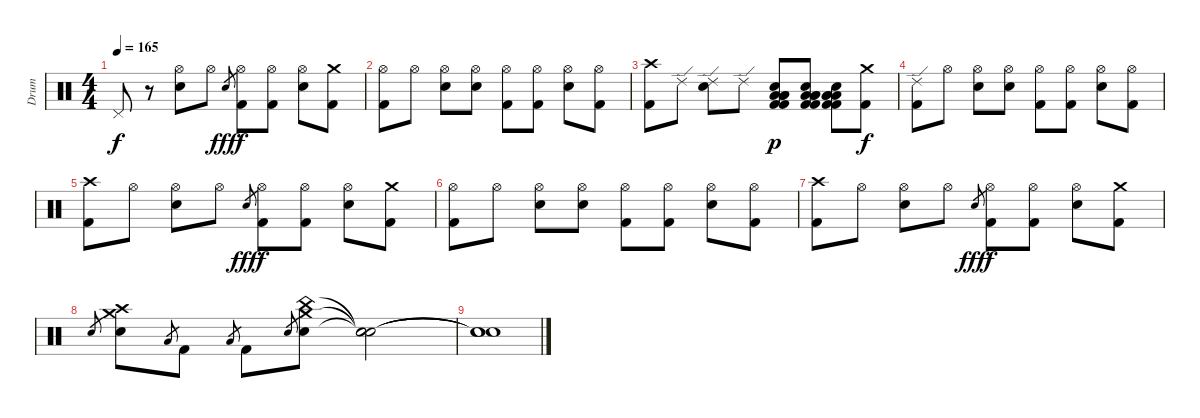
\track ("Drum" "Drum") {instrument percussion}
\staff {score}
\articulation defaults
\ts (4 4)
\tempo 165
\clef neutral
\ks c "Pedal Hi-Hat (hit)".8{dy f}
r.8 ("Hi-Hat (open)" "Electric Snare (hit)").8 "Hi-Hat (open)".8 "Electric Snare (hit)".8{gr dy fff} ("Hi-Hat (open)" "Kick (hit) 2").8{dy f} ("Hi-Hat (open)" "Kick (hit) 2").8 ("Hi-Hat (open)" "Electric Snare (hit)").8 ("Crash medium (hit)" "Kick (hit) 2").8 |
("Hi-Hat (open)" "Kick (hit) 2").8 "Hi-Hat (open)".8 ("Hi-Hat (open)" "Electric Snare (hit)").8 ("Hi-Hat (open)" "Electric Snare (hit)").8 ("Hi-Hat (open)" "Kick (hit) 2").8 ("Hi-Hat (open)" "Kick (hit) 2").8 ("Hi-Hat (open)" "Electric Snare (hit)").8 ("Hi-Hat (open)" "Kick (hit) 2").8 |
("Crash high (hit)" "Kick (hit) 2").8 "Ride (edge) 2".8 ("Ride (edge) 2" "Electric Snare (hit)").8 "Ride (edge) 2".8 ("Low Tom (hit)" "Low Floor Tom (hit)" "Low Floor Tom (hit)" "Kick (hit) 2" "Snare (hit) 2" "Kick (hit) 2").8{dy p} ("Low Tom (hit)" "Low Floor Tom (hit)" "Low Floor Tom (hit)" "Kick (hit) 2" "Snare (hit) 2" "Kick (hit) 2").8 ("Low Tom (hit)" "Low Floor Tom (hit)" "Low Floor Tom (hit)" "Kick (hit) 2" "Snare (hit) 2" "Kick (hit) 2").8 ("Crash medium (hit)" "Kick (hit) 2").8{dy f} |
("Ride (edge) 2" "Kick (hit) 2").8 "Hi-Hat (open)".8 ("Hi-Hat (open)" "Electric Snare (hit)").8 ("Hi-Hat (open)" "Electric Snare (hit)").8 ("Hi-Hat (open)" "Kick (hit) 2").8 ("Hi-Hat (open)" "Kick (hit) 2").8 ("Hi-Hat (open)" "Electric Snare (hit)").8 ("Hi-Hat (open)" "Kick (hit) 2").8 |
("Crash high (hit)" "Kick (hit) 2").8 "Hi-Hat (open)".8 ("Hi-Hat (open)" "Electric Snare (hit)").8 "Hi-Hat (open)".8 "Electric Snare (hit)".8{gr dy fff} ("Hi-Hat (open)" "Kick (hit) 2").8{dy f} ("Hi-Hat (open)" "Kick (hit) 2").8 ("Hi-Hat (open)" "Electric Snare (hit)").8 ("Crash medium (hit)" "Kick (hit) 2").8 |
("Hi-Hat (open)" "Kick (hit) 2").8 "Hi-Hat (open)".8 ("Hi-Hat (open)" "Electric Snare (hit)").8 ("Hi-Hat (open)" "Electric Snare (hit)").8 ("Hi-Hat (open)" "Kick (hit) 2").8 ("Hi-Hat (open)" "Kick (hit) 2").8 ("Hi-Hat (open)" "Electric Snare (hit)").8 ("Hi-Hat (open)" "Kick (hit) 2").8 |
("Crash high (hit)" "Kick (hit) 2").8 "Hi-Hat (open)".8 ("Hi-Hat (open)" "Electric Snare (hit)").8 "Hi-Hat (open)".8 "Electric Snare (hit)".8{gr dy fff} ("Hi-Hat (open)" "Kick (hit) 2").8{dy f} ("Hi-Hat (open)" "Kick (hit) 2").8 ("Hi-Hat (open)" "Electric Snare (hit)").8 ("Crash medium (hit)" "Kick (hit) 2").8 |
"Electric Snare (hit)".8{gr} ("Crash high (hit)" "Crash medium (hit)" "Electric Snare (hit)").8 "Low Tom (hit)".8{gr} "Kick (hit) 2".8 "Low Tom (hit)".8{gr} "Kick (hit) 2".8 "Electric Snare (hit)".8{gr} ("China (hit)" "Crash medium (hit)" "Electric Snare (hit)").8 ("Snare (hit)"{t} "Snare (hit)"{t} "Snare (hit)"{t}).2 |
("Snare (hit)"{t} "Snare (hit)"{t} "Snare (hit)"{t}).1
